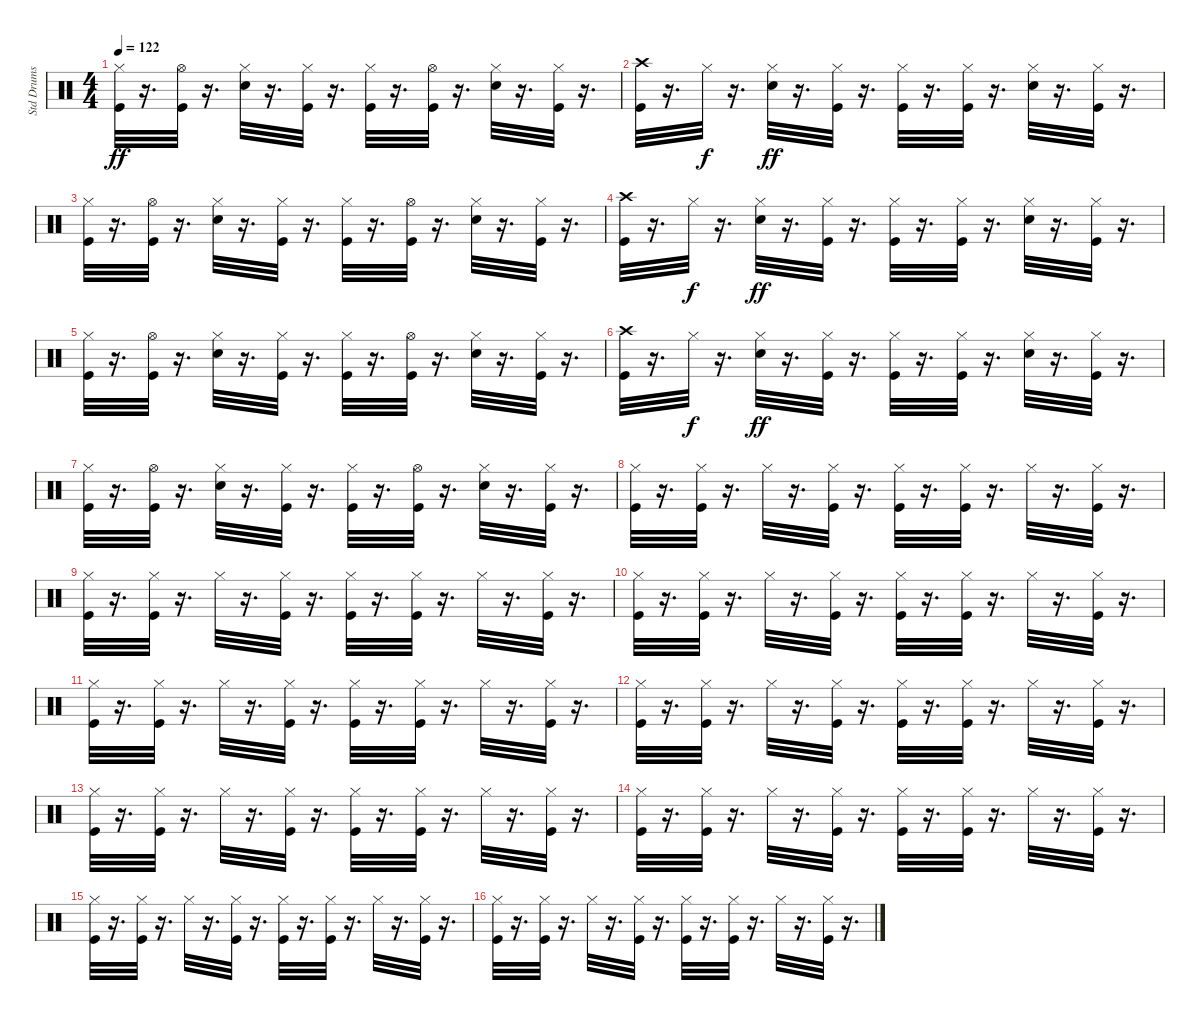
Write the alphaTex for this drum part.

\track ("Std Drums" "Std Drums") {instrument percussion}
\staff {score}
\articulation defaults
\ts (4 4)
\tempo 122
\clef neutral
\ks c
("Kick (hit)" "Hi-Hat (closed)").32{dy ff} r.16{d} ("Kick (hit)" "Hi-Hat (open)").32 r.16{d} ("Snare (hit) 2" "Hi-Hat (closed)").32 r.16{d} ("Hi-Hat (closed)" "Kick (hit)").32 r.16{d} ("Hi-Hat (closed)" "Kick (hit)").32 r.16{d} ("Hi-Hat (open)" "Kick (hit)").32 r.16{d} ("Snare (hit) 2" "Hi-Hat (closed)").32 r.16{d} ("Hi-Hat (closed)" "Kick (hit)").32 r.16{d} |
("Crash high (hit)" "Kick (hit)").32 r.16{d} "Hi-Hat (closed)".32{dy f} r.16{d} ("Snare (hit) 2" "Hi-Hat (closed)").32{dy ff} r.16{d} ("Kick (hit)" "Hi-Hat (closed)").32 r.16{d} ("Kick (hit)" "Hi-Hat (closed)").32 r.16{d} ("Hi-Hat (closed)" "Kick (hit)").32 r.16{d} ("Snare (hit) 2" "Hi-Hat (closed)").32 r.16{d} ("Kick (hit)" "Hi-Hat (closed)").32 r.16{d} |
("Kick (hit)" "Hi-Hat (closed)").32 r.16{d} ("Hi-Hat (open)" "Kick (hit)").32 r.16{d} ("Hi-Hat (closed)" "Snare (hit) 2").32 r.16{d} ("Hi-Hat (closed)" "Kick (hit)").32 r.16{d} ("Kick (hit)" "Hi-Hat (closed)").32 r.16{d} ("Hi-Hat (open)" "Kick (hit)").32 r.16{d} ("Hi-Hat (closed)" "Snare (hit) 2").32 r.16{d} ("Hi-Hat (closed)" "Kick (hit)").32 r.16{d} |
("Kick (hit)" "Crash high (hit)").32 r.16{d} "Hi-Hat (closed)".32{dy f} r.16{d} ("Hi-Hat (closed)" "Snare (hit) 2").32{dy ff} r.16{d} ("Hi-Hat (closed)" "Kick (hit)").32 r.16{d} ("Kick (hit)" "Hi-Hat (closed)").32 r.16{d} ("Kick (hit)" "Hi-Hat (closed)").32 r.16{d} ("Snare (hit) 2" "Hi-Hat (closed)").32 r.16{d} ("Kick (hit)" "Hi-Hat (closed)").32 r.16{d} |
("Hi-Hat (closed)" "Kick (hit)").32 r.16{d} ("Hi-Hat (open)" "Kick (hit)").32 r.16{d} ("Snare (hit) 2" "Hi-Hat (closed)").32 r.16{d} ("Hi-Hat (closed)" "Kick (hit)").32 r.16{d} ("Kick (hit)" "Hi-Hat (closed)").32 r.16{d} ("Kick (hit)" "Hi-Hat (open)").32 r.16{d} ("Snare (hit) 2" "Hi-Hat (closed)").32 r.16{d} ("Hi-Hat (closed)" "Kick (hit)").32 r.16{d} |
("Crash high (hit)" "Kick (hit)").32 r.16{d} "Hi-Hat (closed)".32{dy f} r.16{d} ("Hi-Hat (closed)" "Snare (hit) 2").32{dy ff} r.16{d} ("Kick (hit)" "Hi-Hat (closed)").32 r.16{d} ("Kick (hit)" "Hi-Hat (closed)").32 r.16{d} ("Hi-Hat (closed)" "Kick (hit)").32 r.16{d} ("Hi-Hat (closed)" "Snare (hit) 2").32 r.16{d} ("Hi-Hat (closed)" "Kick (hit)").32 r.16{d} |
("Hi-Hat (closed)" "Kick (hit)").32 r.16{d} ("Kick (hit)" "Hi-Hat (open)").32 r.16{d} ("Snare (hit) 2" "Hi-Hat (closed)").32 r.16{d} ("Hi-Hat (closed)" "Kick (hit)").32 r.16{d} ("Hi-Hat (closed)" "Kick (hit)").32 r.16{d} ("Hi-Hat (open)" "Kick (hit)").32 r.16{d} ("Snare (hit) 2" "Hi-Hat (closed)").32 r.16{d} ("Hi-Hat (closed)" "Kick (hit)").32 r.16{d} |
("Hi-Hat (closed)" "Kick (hit)").32 r.16{d} ("Kick (hit)" "Hi-Hat (closed)").32 r.16{d} "Hi-Hat (closed)".32 r.16{d} ("Kick (hit)" "Hi-Hat (closed)").32 r.16{d} ("Kick (hit)" "Hi-Hat (closed)").32 r.16{d} ("Kick (hit)" "Hi-Hat (closed)").32 r.16{d} "Hi-Hat (closed)".32 r.16{d} ("Hi-Hat (closed)" "Kick (hit)").32 r.16{d} |
("Kick (hit)" "Hi-Hat (closed)").32 r.16{d} ("Hi-Hat (closed)" "Kick (hit)").32 r.16{d} "Hi-Hat (closed)".32 r.16{d} ("Kick (hit)" "Hi-Hat (closed)").32 r.16{d} ("Kick (hit)" "Hi-Hat (closed)").32 r.16{d} ("Kick (hit)" "Hi-Hat (closed)").32 r.16{d} "Hi-Hat (closed)".32 r.16{d} ("Hi-Hat (closed)" "Kick (hit)").32 r.16{d} |
("Hi-Hat (closed)" "Kick (hit)").32 r.16{d} ("Kick (hit)" "Hi-Hat (closed)").32 r.16{d} "Hi-Hat (closed)".32 r.16{d} ("Hi-Hat (closed)" "Kick (hit)").32 r.16{d} ("Hi-Hat (closed)" "Kick (hit)").32 r.16{d} ("Kick (hit)" "Hi-Hat (closed)").32 r.16{d} "Hi-Hat (closed)".32 r.16{d} ("Kick (hit)" "Hi-Hat (closed)").32 r.16{d} |
("Hi-Hat (closed)" "Kick (hit)").32 r.16{d} ("Kick (hit)" "Hi-Hat (closed)").32 r.16{d} "Hi-Hat (closed)".32 r.16{d} ("Hi-Hat (closed)" "Kick (hit)").32 r.16{d} ("Kick (hit)" "Hi-Hat (closed)").32 r.16{d} ("Kick (hit)" "Hi-Hat (closed)").32 r.16{d} "Hi-Hat (closed)".32 r.16{d} ("Kick (hit)" "Hi-Hat (closed)").32 r.16{d} |
("Hi-Hat (closed)" "Kick (hit)").32 r.16{d} ("Kick (hit)" "Hi-Hat (closed)").32 r.16{d} "Hi-Hat (closed)".32 r.16{d} ("Kick (hit)" "Hi-Hat (closed)").32 r.16{d} ("Kick (hit)" "Hi-Hat (closed)").32 r.16{d} ("Hi-Hat (closed)" "Kick (hit)").32 r.16{d} "Hi-Hat (closed)".32 r.16{d} ("Hi-Hat (closed)" "Kick (hit)").32 r.16{d} |
("Kick (hit)" "Hi-Hat (closed)").32 r.16{d} ("Kick (hit)" "Hi-Hat (closed)").32 r.16{d} "Hi-Hat (closed)".32 r.16{d} ("Kick (hit)" "Hi-Hat (closed)").32 r.16{d} ("Kick (hit)" "Hi-Hat (closed)").32 r.16{d} ("Hi-Hat (closed)" "Kick (hit)").32 r.16{d} "Hi-Hat (closed)".32 r.16{d} ("Kick (hit)" "Hi-Hat (closed)").32 r.16{d} |
("Kick (hit)" "Hi-Hat (closed)").32 r.16{d} ("Hi-Hat (closed)" "Kick (hit)").32 r.16{d} "Hi-Hat (closed)".32 r.16{d} ("Hi-Hat (closed)" "Kick (hit)").32 r.16{d} ("Kick (hit)" "Hi-Hat (closed)").32 r.16{d} ("Hi-Hat (closed)" "Kick (hit)").32 r.16{d} "Hi-Hat (closed)".32 r.16{d} ("Hi-Hat (closed)" "Kick (hit)").32 r.16{d} |
("Hi-Hat (closed)" "Kick (hit)").32 r.16{d} ("Hi-Hat (closed)" "Kick (hit)").32 r.16{d} "Hi-Hat (closed)".32 r.16{d} ("Hi-Hat (closed)" "Kick (hit)").32 r.16{d} ("Kick (hit)" "Hi-Hat (closed)").32 r.16{d} ("Hi-Hat (closed)" "Kick (hit)").32 r.16{d} "Hi-Hat (closed)".32 r.16{d} ("Hi-Hat (closed)" "Kick (hit)").32 r.16{d} |
("Kick (hit)" "Hi-Hat (closed)").32 r.16{d} ("Hi-Hat (closed)" "Kick (hit)").32 r.16{d} "Hi-Hat (closed)".32 r.16{d} ("Kick (hit)" "Hi-Hat (closed)").32 r.16{d} ("Kick (hit)" "Hi-Hat (closed)").32 r.16{d} ("Hi-Hat (closed)" "Kick (hit)").32 r.16{d} "Hi-Hat (closed)".32 r.16{d} ("Hi-Hat (closed)" "Kick (hit)").32 r.16{d}
